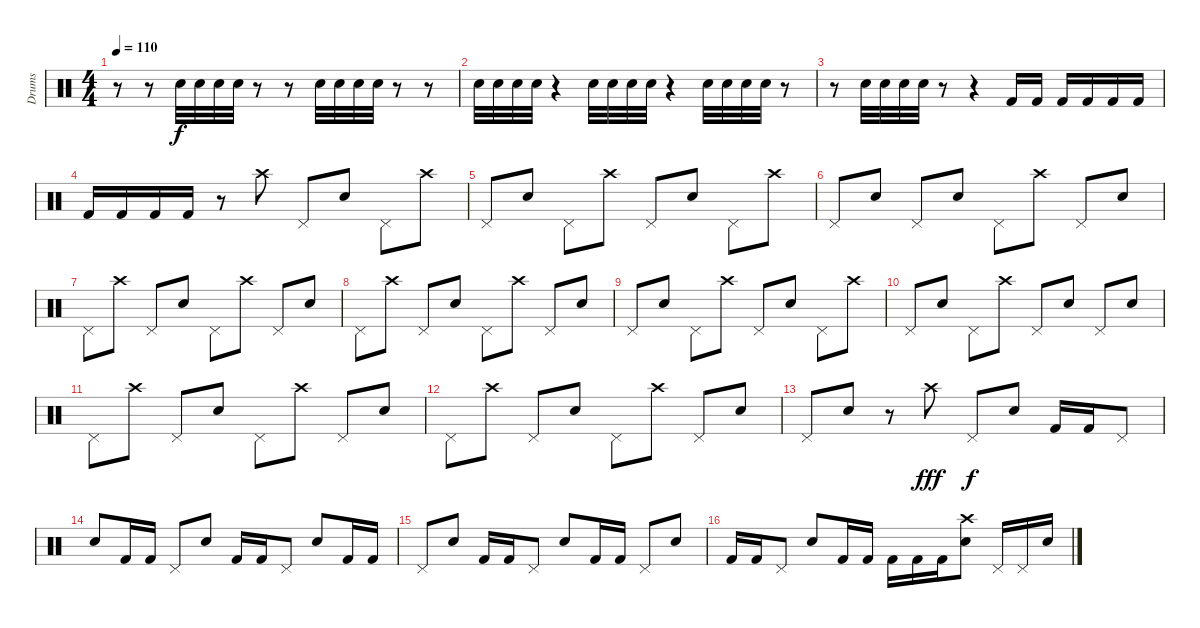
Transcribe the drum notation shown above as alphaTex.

\track ("Drums" "Drums") {instrument percussion}
\staff {score}
\articulation defaults
\ts (4 4)
\tempo 110
\clef neutral
\ks c
r.8{dy f} r.8 "Snare (hit) 2".32 "Snare (hit) 2".32 "Snare (hit) 2".32 "Snare (hit) 2".32 r.8 r.8 "Snare (hit) 2".32 "Snare (hit) 2".32 "Snare (hit) 2".32 "Snare (hit) 2".32 r.8 r.8 |
"Snare (hit) 2".32 "Snare (hit) 2".32 "Snare (hit) 2".32 "Snare (hit) 2".32 r.4 "Snare (hit) 2".32 "Snare (hit) 2".32 "Snare (hit) 2".32 "Snare (hit) 2".32 r.4 "Snare (hit) 2".32 "Snare (hit) 2".32 "Snare (hit) 2".32 "Snare (hit) 2".32 r.8 |
r.8 "Snare (hit) 2".32 "Snare (hit) 2".32 "Snare (hit) 2".32 "Snare (hit) 2".32 r.8 r.4 "Kick (hit) 2".16 "Kick (hit) 2".16 "Kick (hit) 2".16 "Kick (hit) 2".16 "Kick (hit) 2".16 "Kick (hit) 2".16 |
"Kick (hit) 2".16 "Kick (hit) 2".16 "Kick (hit) 2".16 "Kick (hit) 2".16 r.8 "Crash high (hit)".8 "Pedal Hi-Hat (hit)".8 "Electric Snare (hit)".8 "Pedal Hi-Hat (hit)".8 "Crash high (hit)".8 |
"Pedal Hi-Hat (hit)".8 "Electric Snare (hit)".8 "Pedal Hi-Hat (hit)".8 "Crash high (hit)".8 "Pedal Hi-Hat (hit)".8 "Electric Snare (hit)".8 "Pedal Hi-Hat (hit)".8 "Crash high (hit)".8 |
"Pedal Hi-Hat (hit)".8 "Electric Snare (hit)".8 "Pedal Hi-Hat (hit)".8 "Electric Snare (hit)".8 "Pedal Hi-Hat (hit)".8 "Crash high (hit)".8 "Pedal Hi-Hat (hit)".8 "Electric Snare (hit)".8 |
"Pedal Hi-Hat (hit)".8 "Crash high (hit)".8 "Pedal Hi-Hat (hit)".8 "Electric Snare (hit)".8 "Pedal Hi-Hat (hit)".8 "Crash high (hit)".8 "Pedal Hi-Hat (hit)".8 "Electric Snare (hit)".8 |
"Pedal Hi-Hat (hit)".8 "Crash high (hit)".8 "Pedal Hi-Hat (hit)".8 "Electric Snare (hit)".8 "Pedal Hi-Hat (hit)".8 "Crash high (hit)".8 "Pedal Hi-Hat (hit)".8 "Electric Snare (hit)".8 |
"Pedal Hi-Hat (hit)".8 "Electric Snare (hit)".8 "Pedal Hi-Hat (hit)".8 "Crash high (hit)".8 "Pedal Hi-Hat (hit)".8 "Electric Snare (hit)".8 "Pedal Hi-Hat (hit)".8 "Crash high (hit)".8 |
"Pedal Hi-Hat (hit)".8 "Electric Snare (hit)".8 "Pedal Hi-Hat (hit)".8 "Crash high (hit)".8 "Pedal Hi-Hat (hit)".8 "Electric Snare (hit)".8 "Pedal Hi-Hat (hit)".8 "Electric Snare (hit)".8 |
"Pedal Hi-Hat (hit)".8 "Crash high (hit)".8 "Pedal Hi-Hat (hit)".8 "Electric Snare (hit)".8 "Pedal Hi-Hat (hit)".8 "Crash high (hit)".8 "Pedal Hi-Hat (hit)".8 "Electric Snare (hit)".8 |
"Pedal Hi-Hat (hit)".8 "Crash high (hit)".8 "Pedal Hi-Hat (hit)".8 "Electric Snare (hit)".8 "Pedal Hi-Hat (hit)".8 "Crash high (hit)".8 "Pedal Hi-Hat (hit)".8 "Electric Snare (hit)".8 |
"Pedal Hi-Hat (hit)".8 "Electric Snare (hit)".8 r.8 "Crash high (hit)".8{dy fff} "Pedal Hi-Hat (hit)".8{dy f} "Electric Snare (hit)".8 "Kick (hit) 2".16 "Kick (hit) 2".16 "Pedal Hi-Hat (hit)".8 |
"Electric Snare (hit)".8 "Kick (hit) 2".16 "Kick (hit) 2".16 "Pedal Hi-Hat (hit)".8 "Electric Snare (hit)".8 "Kick (hit) 2".16 "Kick (hit) 2".16 "Pedal Hi-Hat (hit)".8 "Electric Snare (hit)".8 "Kick (hit) 2".16 "Kick (hit) 2".16 |
"Pedal Hi-Hat (hit)".8 "Electric Snare (hit)".8 "Kick (hit) 2".16 "Kick (hit) 2".16 "Pedal Hi-Hat (hit)".8 "Electric Snare (hit)".8 "Kick (hit) 2".16 "Kick (hit) 2".16 "Pedal Hi-Hat (hit)".8 "Electric Snare (hit)".8 |
"Kick (hit) 2".16 "Kick (hit) 2".16 "Pedal Hi-Hat (hit)".8 "Electric Snare (hit)".8 "Kick (hit) 2".16 "Kick (hit) 2".16 "Kick (hit) 2".16 "Kick (hit) 2".16 "Kick (hit) 2".16 ("Crash high (hit)" "Electric Snare (hit)").8 "Pedal Hi-Hat (hit)".16 "Pedal Hi-Hat (hit)".16 "Electric Snare (hit)".16
